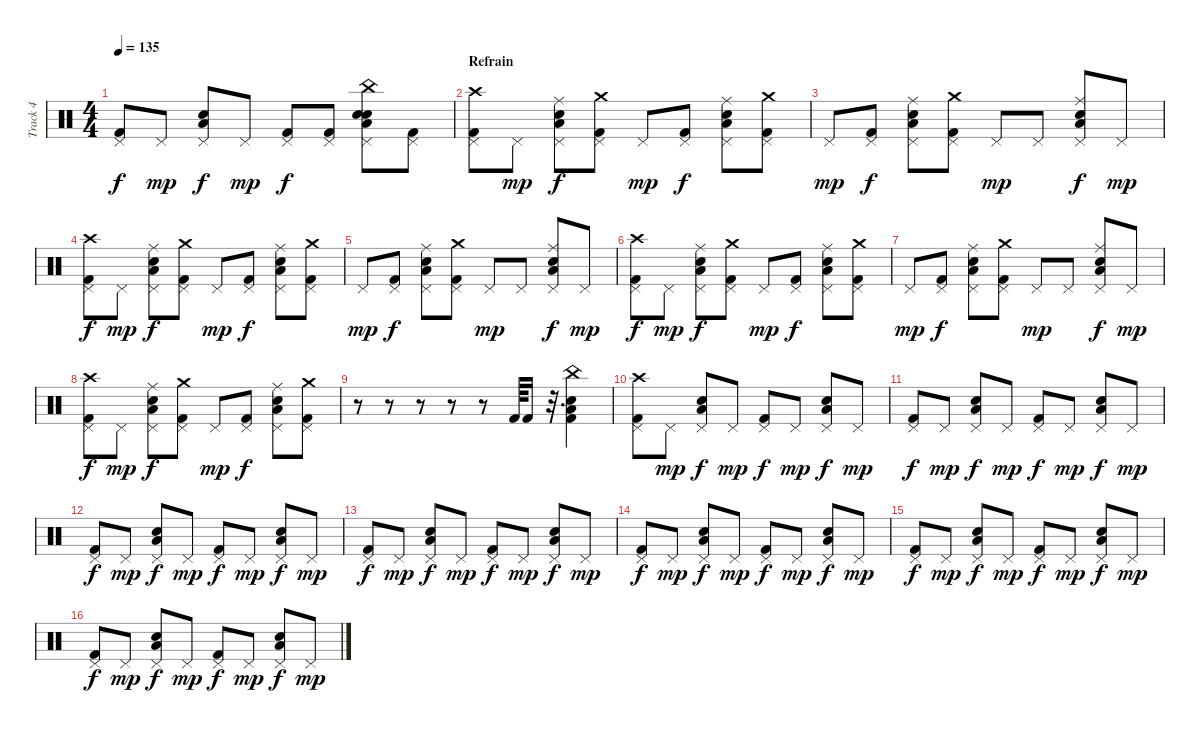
\track ("Track 4" "Track 4") {instrument percussion}
\staff {score}
\articulation defaults
\ts (4 4)
\tempo 135
\clef neutral
\ks c
("Pedal Hi-Hat (hit)" "Kick (hit) 2").8{dy f} "Pedal Hi-Hat (hit)".8{dy mp} ("Pedal Hi-Hat (hit)" "Low Tom (hit)" "Electric Snare (hit)").8{dy f} "Pedal Hi-Hat (hit)".8{dy mp} ("Pedal Hi-Hat (hit)" "Kick (hit) 2").8{dy f} ("Pedal Hi-Hat (hit)" "Kick (hit) 2").8 ("Pedal Hi-Hat (hit)" "Low Tom (hit)" "Electric Snare (hit)" "Snare (hit) 2" "China (hit)").8 ("Pedal Hi-Hat (hit)" "Kick (hit) 2").8 |
\section ("" "Refrain")
("Pedal Hi-Hat (hit)" "Kick (hit) 2" "Crash high (hit)").8 "Pedal Hi-Hat (hit)".8{dy mp} ("Pedal Hi-Hat (hit)" "Low Tom (hit)" "Electric Snare (hit)" "Ride (middle)").8{dy f} ("Pedal Hi-Hat (hit)" "Kick (hit) 2" "Crash medium (hit)").8 "Pedal Hi-Hat (hit)".8{dy mp} ("Pedal Hi-Hat (hit)" "Kick (hit) 2").8{dy f} ("Pedal Hi-Hat (hit)" "Low Tom (hit)" "Electric Snare (hit)" "Ride (middle)").8 ("Pedal Hi-Hat (hit)" "Kick (hit) 2" "Crash medium (hit)").8 |
"Pedal Hi-Hat (hit)".8{dy mp} ("Pedal Hi-Hat (hit)" "Kick (hit) 2").8{dy f} ("Pedal Hi-Hat (hit)" "Low Tom (hit)" "Electric Snare (hit)" "Ride (middle)").8 ("Pedal Hi-Hat (hit)" "Kick (hit) 2" "Crash medium (hit)").8 "Pedal Hi-Hat (hit)".8{dy mp} "Pedal Hi-Hat (hit)".8 ("Pedal Hi-Hat (hit)" "Low Tom (hit)" "Electric Snare (hit)" "Ride (middle)").8{dy f} "Pedal Hi-Hat (hit)".8{dy mp} |
("Pedal Hi-Hat (hit)" "Kick (hit) 2" "Crash high (hit)").8{dy f} "Pedal Hi-Hat (hit)".8{dy mp} ("Pedal Hi-Hat (hit)" "Low Tom (hit)" "Electric Snare (hit)" "Ride (middle)").8{dy f} ("Pedal Hi-Hat (hit)" "Kick (hit) 2" "Crash medium (hit)").8 "Pedal Hi-Hat (hit)".8{dy mp} ("Pedal Hi-Hat (hit)" "Kick (hit) 2").8{dy f} ("Pedal Hi-Hat (hit)" "Low Tom (hit)" "Electric Snare (hit)" "Ride (middle)").8 ("Pedal Hi-Hat (hit)" "Kick (hit) 2" "Crash medium (hit)").8 |
"Pedal Hi-Hat (hit)".8{dy mp} ("Pedal Hi-Hat (hit)" "Kick (hit) 2").8{dy f} ("Pedal Hi-Hat (hit)" "Low Tom (hit)" "Electric Snare (hit)" "Ride (middle)").8 ("Pedal Hi-Hat (hit)" "Kick (hit) 2" "Crash medium (hit)").8 "Pedal Hi-Hat (hit)".8{dy mp} "Pedal Hi-Hat (hit)".8 ("Pedal Hi-Hat (hit)" "Low Tom (hit)" "Electric Snare (hit)" "Ride (middle)").8{dy f} "Pedal Hi-Hat (hit)".8{dy mp} |
("Pedal Hi-Hat (hit)" "Kick (hit) 2" "Crash high (hit)").8{dy f} "Pedal Hi-Hat (hit)".8{dy mp} ("Pedal Hi-Hat (hit)" "Low Tom (hit)" "Electric Snare (hit)" "Ride (middle)").8{dy f} ("Pedal Hi-Hat (hit)" "Kick (hit) 2" "Crash medium (hit)").8 "Pedal Hi-Hat (hit)".8{dy mp} ("Pedal Hi-Hat (hit)" "Kick (hit) 2").8{dy f} ("Pedal Hi-Hat (hit)" "Low Tom (hit)" "Electric Snare (hit)" "Ride (middle)").8 ("Pedal Hi-Hat (hit)" "Kick (hit) 2" "Crash medium (hit)").8 |
"Pedal Hi-Hat (hit)".8{dy mp} ("Pedal Hi-Hat (hit)" "Kick (hit) 2").8{dy f} ("Pedal Hi-Hat (hit)" "Low Tom (hit)" "Electric Snare (hit)" "Ride (middle)").8 ("Pedal Hi-Hat (hit)" "Kick (hit) 2" "Crash medium (hit)").8 "Pedal Hi-Hat (hit)".8{dy mp} "Pedal Hi-Hat (hit)".8 ("Pedal Hi-Hat (hit)" "Low Tom (hit)" "Electric Snare (hit)" "Ride (middle)").8{dy f} "Pedal Hi-Hat (hit)".8{dy mp} |
("Pedal Hi-Hat (hit)" "Kick (hit) 2" "Crash high (hit)").8{dy f} "Pedal Hi-Hat (hit)".8{dy mp} ("Pedal Hi-Hat (hit)" "Low Tom (hit)" "Electric Snare (hit)" "Ride (middle)").8{dy f} ("Pedal Hi-Hat (hit)" "Kick (hit) 2" "Crash medium (hit)").8 "Pedal Hi-Hat (hit)".8{dy mp} ("Pedal Hi-Hat (hit)" "Kick (hit) 2").8{dy f} ("Pedal Hi-Hat (hit)" "Low Tom (hit)" "Electric Snare (hit)" "Ride (middle)").8 ("Pedal Hi-Hat (hit)" "Kick (hit) 2" "Crash medium (hit)").8 |
r.8 r.8 r.8 r.8 r.8 "Kick (hit) 2".64 "Kick (hit) 2".16 r.32{d} ("Low Tom (hit)" "Snare (hit) 2" "Kick (hit) 2" "China (hit)").4 |
("Pedal Hi-Hat (hit)" "Kick (hit) 2" "Crash high (hit)").8 "Pedal Hi-Hat (hit)".8{dy mp} ("Pedal Hi-Hat (hit)" "Low Tom (hit)" "Electric Snare (hit)").8{dy f} "Pedal Hi-Hat (hit)".8{dy mp} ("Pedal Hi-Hat (hit)" "Kick (hit) 2").8{dy f} "Pedal Hi-Hat (hit)".8{dy mp} ("Pedal Hi-Hat (hit)" "Low Tom (hit)" "Electric Snare (hit)").8{dy f} "Pedal Hi-Hat (hit)".8{dy mp} |
("Pedal Hi-Hat (hit)" "Kick (hit) 2").8{dy f} "Pedal Hi-Hat (hit)".8{dy mp} ("Pedal Hi-Hat (hit)" "Low Tom (hit)" "Electric Snare (hit)").8{dy f} "Pedal Hi-Hat (hit)".8{dy mp} ("Pedal Hi-Hat (hit)" "Kick (hit) 2").8{dy f} "Pedal Hi-Hat (hit)".8{dy mp} ("Pedal Hi-Hat (hit)" "Low Tom (hit)" "Electric Snare (hit)").8{dy f} "Pedal Hi-Hat (hit)".8{dy mp} |
("Pedal Hi-Hat (hit)" "Kick (hit) 2").8{dy f} "Pedal Hi-Hat (hit)".8{dy mp} ("Pedal Hi-Hat (hit)" "Low Tom (hit)" "Electric Snare (hit)").8{dy f} "Pedal Hi-Hat (hit)".8{dy mp} ("Pedal Hi-Hat (hit)" "Kick (hit) 2").8{dy f} "Pedal Hi-Hat (hit)".8{dy mp} ("Pedal Hi-Hat (hit)" "Low Tom (hit)" "Electric Snare (hit)").8{dy f} "Pedal Hi-Hat (hit)".8{dy mp} |
("Pedal Hi-Hat (hit)" "Kick (hit) 2").8{dy f} "Pedal Hi-Hat (hit)".8{dy mp} ("Pedal Hi-Hat (hit)" "Low Tom (hit)" "Electric Snare (hit)").8{dy f} "Pedal Hi-Hat (hit)".8{dy mp} ("Pedal Hi-Hat (hit)" "Kick (hit) 2").8{dy f} "Pedal Hi-Hat (hit)".8{dy mp} ("Pedal Hi-Hat (hit)" "Low Tom (hit)" "Electric Snare (hit)").8{dy f} "Pedal Hi-Hat (hit)".8{dy mp} |
("Pedal Hi-Hat (hit)" "Kick (hit) 2").8{dy f} "Pedal Hi-Hat (hit)".8{dy mp} ("Pedal Hi-Hat (hit)" "Low Tom (hit)" "Electric Snare (hit)").8{dy f} "Pedal Hi-Hat (hit)".8{dy mp} ("Pedal Hi-Hat (hit)" "Kick (hit) 2").8{dy f} "Pedal Hi-Hat (hit)".8{dy mp} ("Pedal Hi-Hat (hit)" "Low Tom (hit)" "Electric Snare (hit)").8{dy f} "Pedal Hi-Hat (hit)".8{dy mp} |
("Pedal Hi-Hat (hit)" "Kick (hit) 2").8{dy f} "Pedal Hi-Hat (hit)".8{dy mp} ("Pedal Hi-Hat (hit)" "Low Tom (hit)" "Electric Snare (hit)").8{dy f} "Pedal Hi-Hat (hit)".8{dy mp} ("Pedal Hi-Hat (hit)" "Kick (hit) 2").8{dy f} "Pedal Hi-Hat (hit)".8{dy mp} ("Pedal Hi-Hat (hit)" "Low Tom (hit)" "Electric Snare (hit)").8{dy f} "Pedal Hi-Hat (hit)".8{dy mp} |
("Pedal Hi-Hat (hit)" "Kick (hit) 2").8{dy f} "Pedal Hi-Hat (hit)".8{dy mp} ("Pedal Hi-Hat (hit)" "Low Tom (hit)" "Electric Snare (hit)").8{dy f} "Pedal Hi-Hat (hit)".8{dy mp} ("Pedal Hi-Hat (hit)" "Kick (hit) 2").8{dy f} "Pedal Hi-Hat (hit)".8{dy mp} ("Pedal Hi-Hat (hit)" "Low Tom (hit)" "Electric Snare (hit)").8{dy f} "Pedal Hi-Hat (hit)".8{dy mp}
